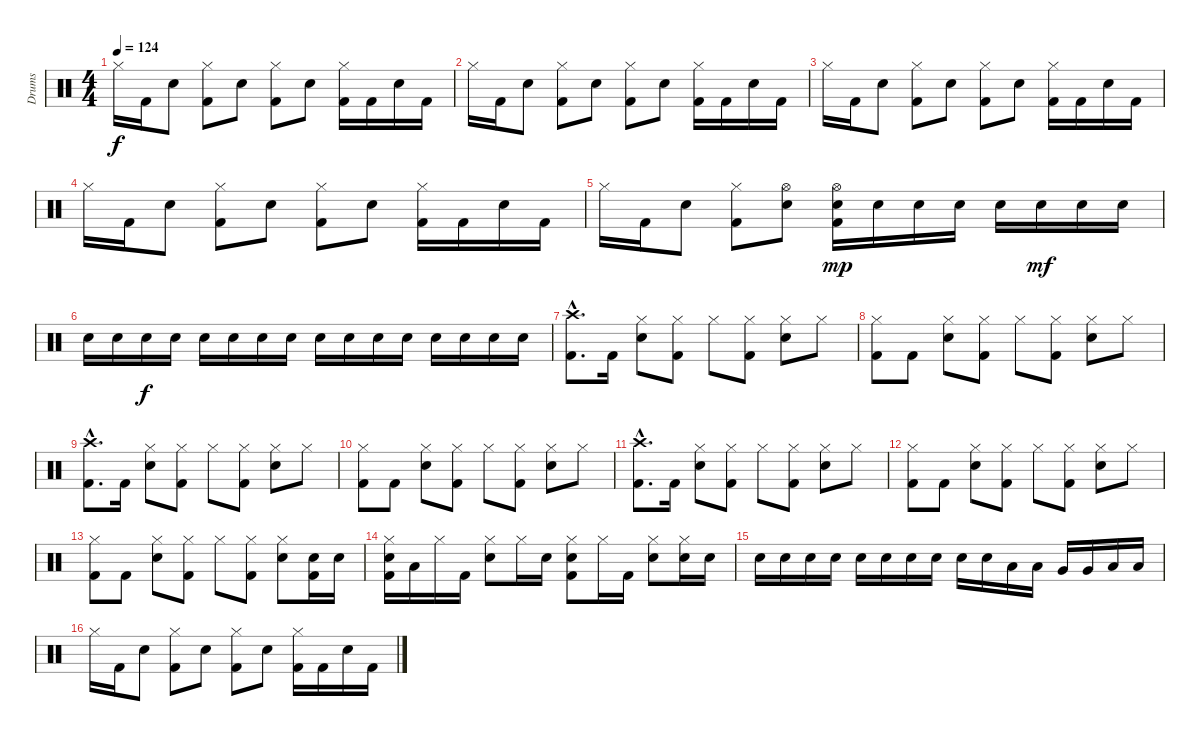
\track ("Drums" "Drums") {instrument percussion}
\staff {score}
\articulation defaults
\ts (4 4)
\tempo 124
\clef neutral
\ks c "Hi-Hat (closed)".16{dy f} "Kick (hit) 2".16 "Electric Snare (hit)".8
("Hi-Hat (closed)" "Kick (hit) 2").8 "Electric Snare (hit)".8 ("Hi-Hat (closed)" "Kick (hit) 2").8 "Electric Snare (hit)".8 ("Hi-Hat (closed)" "Kick (hit) 2").16 "Kick (hit) 2".16 "Electric Snare (hit)".16 "Kick (hit) 2".16 |
"Hi-Hat (closed)".16 "Kick (hit) 2".16 "Electric Snare (hit)".8 ("Hi-Hat (closed)" "Kick (hit) 2").8 "Electric Snare (hit)".8 ("Hi-Hat (closed)" "Kick (hit) 2").8 "Electric Snare (hit)".8 ("Hi-Hat (closed)" "Kick (hit) 2").16 "Kick (hit) 2".16 "Electric Snare (hit)".16 "Kick (hit) 2".16 |
"Hi-Hat (closed)".16 "Kick (hit) 2".16 "Electric Snare (hit)".8 ("Hi-Hat (closed)" "Kick (hit) 2").8 "Electric Snare (hit)".8 ("Hi-Hat (closed)" "Kick (hit) 2").8 "Electric Snare (hit)".8 ("Hi-Hat (closed)" "Kick (hit) 2").16 "Kick (hit) 2".16 "Electric Snare (hit)".16 "Kick (hit) 2".16 |
"Hi-Hat (closed)".16 "Kick (hit) 2".16 "Electric Snare (hit)".8 ("Hi-Hat (closed)" "Kick (hit) 2").8 "Electric Snare (hit)".8 ("Hi-Hat (closed)" "Kick (hit) 2").8 "Electric Snare (hit)".8 ("Hi-Hat (closed)" "Kick (hit) 2").16 "Kick (hit) 2".16 "Electric Snare (hit)".16 "Kick (hit) 2".16 |
"Hi-Hat (closed)".16 "Kick (hit) 2".16 "Electric Snare (hit)".8 ("Hi-Hat (closed)" "Kick (hit) 2").8 ("Hi-Hat (open)" "Electric Snare (hit)").8 ("Hi-Hat (open)" "Electric Snare (hit)" "Kick (hit) 2").16{dy mp} "Electric Snare (hit)".16 "Electric Snare (hit)".16 "Electric Snare (hit)".16 "Electric Snare (hit)".16 "Electric Snare (hit)".16{dy mf} "Electric Snare (hit)".16 "Electric Snare (hit)".16 |
"Electric Snare (hit)".16 "Electric Snare (hit)".16 "Electric Snare (hit)".16{dy f} "Electric Snare (hit)".16 "Electric Snare (hit)".16 "Electric Snare (hit)".16 "Electric Snare (hit)".16 "Electric Snare (hit)".16 "Electric Snare (hit)".16 "Electric Snare (hit)".16 "Electric Snare (hit)".16 "Electric Snare (hit)".16 "Electric Snare (hit)".16 "Electric Snare (hit)".16 "Electric Snare (hit)".16 "Electric Snare (hit)".16 |
("Crash high (hit)"{hac} "Kick (hit) 2"{hac}).8{d} "Kick (hit) 2".16 ("Hi-Hat (closed)" "Electric Snare (hit)").8 ("Hi-Hat (closed)" "Kick (hit) 2").8 "Hi-Hat (closed)".8 ("Hi-Hat (closed)" "Kick (hit) 2").8 ("Hi-Hat (closed)" "Electric Snare (hit)").8 "Hi-Hat (closed)".8 |
("Hi-Hat (closed)" "Kick (hit) 2").8 "Kick (hit) 2".8 ("Hi-Hat (closed)" "Electric Snare (hit)").8 ("Hi-Hat (closed)" "Kick (hit) 2").8 "Hi-Hat (closed)".8 ("Hi-Hat (closed)" "Kick (hit) 2").8 ("Hi-Hat (closed)" "Electric Snare (hit)").8 "Hi-Hat (closed)".8 |
("Crash high (hit)"{hac} "Kick (hit) 2"{hac}).8{d} "Kick (hit) 2".16 ("Hi-Hat (closed)" "Electric Snare (hit)").8 ("Hi-Hat (closed)" "Kick (hit) 2").8 "Hi-Hat (closed)".8 ("Hi-Hat (closed)" "Kick (hit) 2").8 ("Hi-Hat (closed)" "Electric Snare (hit)").8 "Hi-Hat (closed)".8 |
("Hi-Hat (closed)" "Kick (hit) 2").8 "Kick (hit) 2".8 ("Hi-Hat (closed)" "Electric Snare (hit)").8 ("Hi-Hat (closed)" "Kick (hit) 2").8 "Hi-Hat (closed)".8 ("Hi-Hat (closed)" "Kick (hit) 2").8 ("Hi-Hat (closed)" "Electric Snare (hit)").8 "Hi-Hat (closed)".8 |
("Crash high (hit)"{hac} "Kick (hit) 2"{hac}).8{d} "Kick (hit) 2".16 ("Hi-Hat (closed)" "Electric Snare (hit)").8 ("Hi-Hat (closed)" "Kick (hit) 2").8 "Hi-Hat (closed)".8 ("Hi-Hat (closed)" "Kick (hit) 2").8 ("Hi-Hat (closed)" "Electric Snare (hit)").8 "Hi-Hat (closed)".8 |
("Hi-Hat (closed)" "Kick (hit) 2").8 "Kick (hit) 2".8 ("Hi-Hat (closed)" "Electric Snare (hit)").8 ("Hi-Hat (closed)" "Kick (hit) 2").8 "Hi-Hat (closed)".8 ("Hi-Hat (closed)" "Kick (hit) 2").8 ("Hi-Hat (closed)" "Electric Snare (hit)").8 "Hi-Hat (closed)".8 |
("Hi-Hat (closed)" "Kick (hit) 2").8 "Kick (hit) 2".8 ("Hi-Hat (closed)" "Electric Snare (hit)").8 ("Hi-Hat (closed)" "Kick (hit) 2").8 "Hi-Hat (closed)".8 ("Hi-Hat (closed)" "Kick (hit) 2").8 ("Hi-Hat (closed)" "Electric Snare (hit)").8 ("Kick (hit) 2" "Electric Snare (hit)").16 "Electric Snare (hit)".16 |
("Hi-Hat (closed)" "Snare (hit) 2" "Kick (hit) 2").16 "Low Floor Tom (hit)".16 "Hi-Hat (closed)".16 "Kick (hit) 2".16 ("Hi-Hat (closed)" "Electric Snare (hit)").8 "Hi-Hat (closed)".16 "Snare (hit) 2".16 ("Hi-Hat (closed)" "Snare (hit) 2" "Kick (hit) 2").8 "Hi-Hat (closed)".16 "Kick (hit) 2".16 ("Hi-Hat (closed)" "Electric Snare (hit)").8 ("Hi-Hat (closed)" "Snare (hit) 2").16 "Snare (hit) 2".16 |
"Snare (hit) 2".16 "Snare (hit) 2".16 "Snare (hit) 2".16 "Snare (hit) 2".16 "Snare (hit) 2".16 "Snare (hit) 2".16 "Snare (hit) 2".16 "Snare (hit) 2".16 "Electric Snare (hit)".16 "Electric Snare (hit)".16 "Low Tom (hit)".16 "Low Tom (hit)".16 "Very Low Tom (hit)".16 "Very Low Tom (hit)".16 "Low Floor Tom (hit)".16 "Low Floor Tom (hit)".16 |
"Hi-Hat (closed)".16 "Kick (hit) 2".16 "Electric Snare (hit)".8 ("Hi-Hat (closed)" "Kick (hit) 2").8 "Electric Snare (hit)".8 ("Hi-Hat (closed)" "Kick (hit) 2").8 "Electric Snare (hit)".8 ("Hi-Hat (closed)" "Kick (hit) 2").16 "Kick (hit) 2".16 "Electric Snare (hit)".16 "Kick (hit) 2".16
